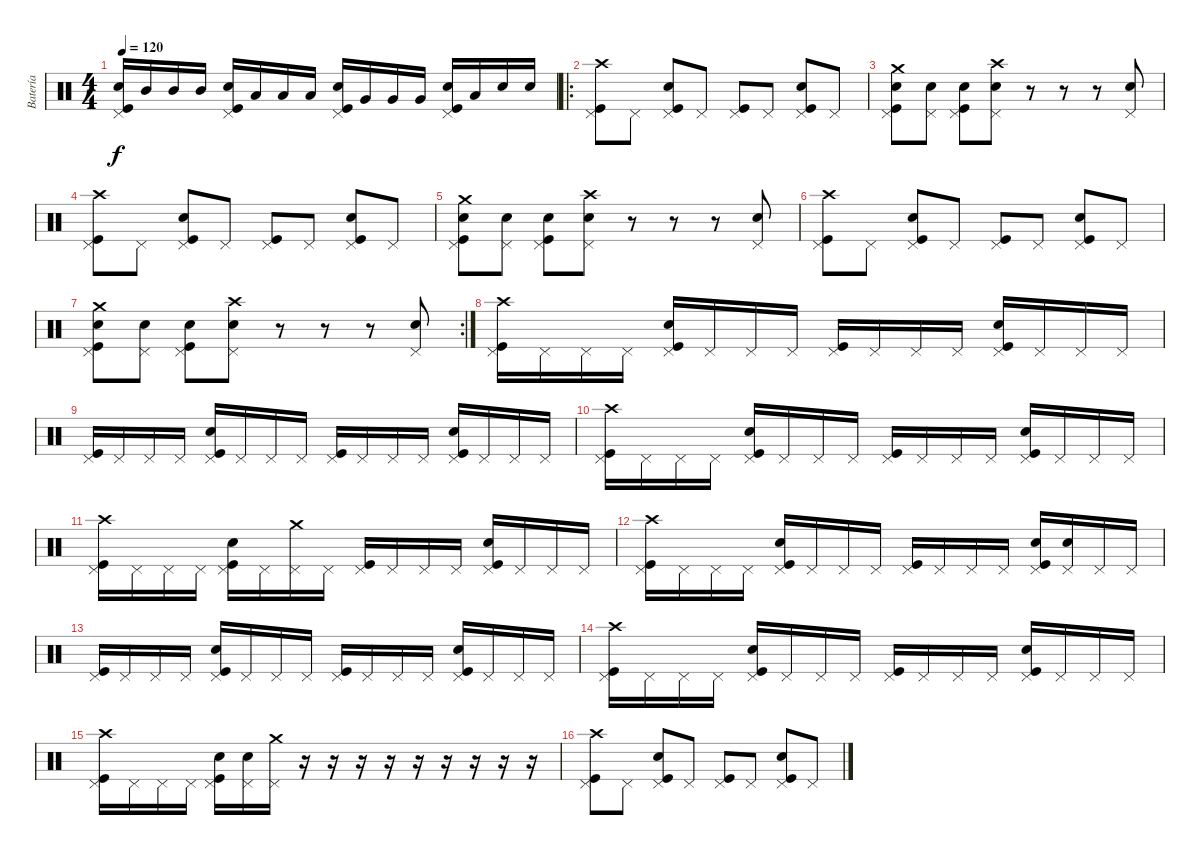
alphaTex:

\track ("Batería" "Batería") {instrument percussion}
\staff {score}
\articulation defaults
\ts (4 4)
\tempo 120
\clef neutral
\ks c
("Pedal Hi-Hat (hit)" "Snare (hit) 2" "Kick (hit)").16{dy f} "Mid Tom (hit)".16 "Mid Tom (hit)".16 "Mid Tom (hit)".16 ("Pedal Hi-Hat (hit)" "Snare (hit) 2" "Kick (hit)").16 "Low Tom (hit)".16 "Low Tom (hit)".16 "Low Tom (hit)".16 ("Pedal Hi-Hat (hit)" "Snare (hit) 2" "Kick (hit)").16 "Very Low Tom (hit)".16 "Very Low Tom (hit)".16 "Very Low Tom (hit)".16 ("Pedal Hi-Hat (hit)" "Snare (hit) 2" "Kick (hit)").16 "Low Floor Tom (hit)".16 "Snare (hit) 2".16 "Snare (hit) 2".16 |
\ro
("Pedal Hi-Hat (hit)" "Crash high (hit)" "Kick (hit)").8 "Pedal Hi-Hat (hit)".8 ("Pedal Hi-Hat (hit)" "Snare (hit) 2" "Kick (hit)").8 "Pedal Hi-Hat (hit)".8 ("Pedal Hi-Hat (hit)" "Kick (hit)").8 "Pedal Hi-Hat (hit)".8 ("Pedal Hi-Hat (hit)" "Snare (hit) 2" "Kick (hit)").8 "Pedal Hi-Hat (hit)".8 |
("Pedal Hi-Hat (hit)" "Crash medium (hit)" "Snare (hit) 2" "Kick (hit)").8 ("Pedal Hi-Hat (hit)" "Snare (hit) 2").8 ("Pedal Hi-Hat (hit)" "Snare (hit) 2" "Kick (hit)").8 ("Pedal Hi-Hat (hit)" "Crash high (hit)" "Snare (hit) 2").8 r.8 r.8 r.8 ("Pedal Hi-Hat (hit)" "Snare (hit) 2").8 |
("Pedal Hi-Hat (hit)" "Crash high (hit)" "Kick (hit)").8 "Pedal Hi-Hat (hit)".8 ("Pedal Hi-Hat (hit)" "Snare (hit) 2" "Kick (hit)").8 "Pedal Hi-Hat (hit)".8 ("Pedal Hi-Hat (hit)" "Kick (hit)").8 "Pedal Hi-Hat (hit)".8 ("Pedal Hi-Hat (hit)" "Snare (hit) 2" "Kick (hit)").8 "Pedal Hi-Hat (hit)".8 |
("Pedal Hi-Hat (hit)" "Crash medium (hit)" "Snare (hit) 2" "Kick (hit)").8 ("Pedal Hi-Hat (hit)" "Snare (hit) 2").8 ("Pedal Hi-Hat (hit)" "Snare (hit) 2" "Kick (hit)").8 ("Pedal Hi-Hat (hit)" "Crash high (hit)" "Snare (hit) 2").8 r.8 r.8 r.8 ("Pedal Hi-Hat (hit)" "Snare (hit) 2").8 |
("Pedal Hi-Hat (hit)" "Crash high (hit)" "Kick (hit)").8 "Pedal Hi-Hat (hit)".8 ("Pedal Hi-Hat (hit)" "Snare (hit) 2" "Kick (hit)").8 "Pedal Hi-Hat (hit)".8 ("Pedal Hi-Hat (hit)" "Kick (hit)").8 "Pedal Hi-Hat (hit)".8 ("Pedal Hi-Hat (hit)" "Snare (hit) 2" "Kick (hit)").8 "Pedal Hi-Hat (hit)".8 |
\rc 2
("Pedal Hi-Hat (hit)" "Crash medium (hit)" "Snare (hit) 2" "Kick (hit)").8 ("Pedal Hi-Hat (hit)" "Snare (hit) 2").8 ("Pedal Hi-Hat (hit)" "Snare (hit) 2" "Kick (hit)").8 ("Pedal Hi-Hat (hit)" "Crash high (hit)" "Snare (hit) 2").8 r.8 r.8 r.8 ("Pedal Hi-Hat (hit)" "Snare (hit) 2").8 |
("Pedal Hi-Hat (hit)" "Crash high (hit)" "Kick (hit)").16 "Pedal Hi-Hat (hit)".16 "Pedal Hi-Hat (hit)".16 "Pedal Hi-Hat (hit)".16 ("Pedal Hi-Hat (hit)" "Snare (hit) 2" "Kick (hit)").16 "Pedal Hi-Hat (hit)".16 "Pedal Hi-Hat (hit)".16 "Pedal Hi-Hat (hit)".16 ("Pedal Hi-Hat (hit)" "Kick (hit)").16 "Pedal Hi-Hat (hit)".16 "Pedal Hi-Hat (hit)".16 "Pedal Hi-Hat (hit)".16 ("Pedal Hi-Hat (hit)" "Snare (hit) 2" "Kick (hit)").16 "Pedal Hi-Hat (hit)".16 "Pedal Hi-Hat (hit)".16 "Pedal Hi-Hat (hit)".16 |
("Pedal Hi-Hat (hit)" "Kick (hit)").16 "Pedal Hi-Hat (hit)".16 "Pedal Hi-Hat (hit)".16 "Pedal Hi-Hat (hit)".16 ("Pedal Hi-Hat (hit)" "Snare (hit) 2" "Kick (hit)").16 "Pedal Hi-Hat (hit)".16 "Pedal Hi-Hat (hit)".16 "Pedal Hi-Hat (hit)".16 ("Pedal Hi-Hat (hit)" "Kick (hit)").16 "Pedal Hi-Hat (hit)".16 "Pedal Hi-Hat (hit)".16 "Pedal Hi-Hat (hit)".16 ("Pedal Hi-Hat (hit)" "Snare (hit) 2" "Kick (hit)").16 "Pedal Hi-Hat (hit)".16 "Pedal Hi-Hat (hit)".16 "Pedal Hi-Hat (hit)".16 |
("Pedal Hi-Hat (hit)" "Crash high (hit)" "Kick (hit)").16 "Pedal Hi-Hat (hit)".16 "Pedal Hi-Hat (hit)".16 "Pedal Hi-Hat (hit)".16 ("Pedal Hi-Hat (hit)" "Snare (hit) 2" "Kick (hit)").16 "Pedal Hi-Hat (hit)".16 "Pedal Hi-Hat (hit)".16 "Pedal Hi-Hat (hit)".16 ("Pedal Hi-Hat (hit)" "Kick (hit)").16 "Pedal Hi-Hat (hit)".16 "Pedal Hi-Hat (hit)".16 "Pedal Hi-Hat (hit)".16 ("Pedal Hi-Hat (hit)" "Snare (hit) 2" "Kick (hit)").16 "Pedal Hi-Hat (hit)".16 "Pedal Hi-Hat (hit)".16 "Pedal Hi-Hat (hit)".16 |
("Pedal Hi-Hat (hit)" "Crash high (hit)" "Kick (hit)").16 "Pedal Hi-Hat (hit)".16 "Pedal Hi-Hat (hit)".16 "Pedal Hi-Hat (hit)".16 ("Pedal Hi-Hat (hit)" "Snare (hit) 2" "Kick (hit)").16 "Pedal Hi-Hat (hit)".16 ("Pedal Hi-Hat (hit)" "Crash medium (hit)").16 "Pedal Hi-Hat (hit)".16 ("Pedal Hi-Hat (hit)" "Kick (hit)").16 "Pedal Hi-Hat (hit)".16 "Pedal Hi-Hat (hit)".16 "Pedal Hi-Hat (hit)".16 ("Pedal Hi-Hat (hit)" "Snare (hit) 2" "Kick (hit)").16 "Pedal Hi-Hat (hit)".16 "Pedal Hi-Hat (hit)".16 "Pedal Hi-Hat (hit)".16 |
("Pedal Hi-Hat (hit)" "Crash high (hit)" "Kick (hit)").16 "Pedal Hi-Hat (hit)".16 "Pedal Hi-Hat (hit)".16 "Pedal Hi-Hat (hit)".16 ("Pedal Hi-Hat (hit)" "Snare (hit) 2" "Kick (hit)").16 "Pedal Hi-Hat (hit)".16 "Pedal Hi-Hat (hit)".16 "Pedal Hi-Hat (hit)".16 ("Pedal Hi-Hat (hit)" "Kick (hit)").16 "Pedal Hi-Hat (hit)".16 "Pedal Hi-Hat (hit)".16 "Pedal Hi-Hat (hit)".16 ("Pedal Hi-Hat (hit)" "Snare (hit) 2" "Kick (hit)").16 ("Pedal Hi-Hat (hit)" "Snare (hit) 2").16 "Pedal Hi-Hat (hit)".16 "Pedal Hi-Hat (hit)".16 |
("Pedal Hi-Hat (hit)" "Kick (hit)").16 "Pedal Hi-Hat (hit)".16 "Pedal Hi-Hat (hit)".16 "Pedal Hi-Hat (hit)".16 ("Pedal Hi-Hat (hit)" "Snare (hit) 2" "Kick (hit)").16 "Pedal Hi-Hat (hit)".16 "Pedal Hi-Hat (hit)".16 "Pedal Hi-Hat (hit)".16 ("Pedal Hi-Hat (hit)" "Kick (hit)").16 "Pedal Hi-Hat (hit)".16 "Pedal Hi-Hat (hit)".16 "Pedal Hi-Hat (hit)".16 ("Pedal Hi-Hat (hit)" "Snare (hit) 2" "Kick (hit)").16 "Pedal Hi-Hat (hit)".16 "Pedal Hi-Hat (hit)".16 "Pedal Hi-Hat (hit)".16 |
("Pedal Hi-Hat (hit)" "Crash high (hit)" "Kick (hit)").16 "Pedal Hi-Hat (hit)".16 "Pedal Hi-Hat (hit)".16 "Pedal Hi-Hat (hit)".16 ("Pedal Hi-Hat (hit)" "Snare (hit) 2" "Kick (hit)").16 "Pedal Hi-Hat (hit)".16 "Pedal Hi-Hat (hit)".16 "Pedal Hi-Hat (hit)".16 ("Pedal Hi-Hat (hit)" "Kick (hit)").16 "Pedal Hi-Hat (hit)".16 "Pedal Hi-Hat (hit)".16 "Pedal Hi-Hat (hit)".16 ("Pedal Hi-Hat (hit)" "Snare (hit) 2" "Kick (hit)").16 "Pedal Hi-Hat (hit)".16 "Pedal Hi-Hat (hit)".16 "Pedal Hi-Hat (hit)".16 |
("Pedal Hi-Hat (hit)" "Crash high (hit)" "Kick (hit)").16 "Pedal Hi-Hat (hit)".16 "Pedal Hi-Hat (hit)".16 "Pedal Hi-Hat (hit)".16 ("Pedal Hi-Hat (hit)" "Snare (hit) 2" "Kick (hit)").16 ("Pedal Hi-Hat (hit)" "Snare (hit) 2").16 ("Pedal Hi-Hat (hit)" "Crash medium (hit)").16 r.16 r.16 r.16 r.16 r.16 r.16 r.16 r.16 r.16 |
("Pedal Hi-Hat (hit)" "Crash high (hit)" "Kick (hit)").8 "Pedal Hi-Hat (hit)".8 ("Pedal Hi-Hat (hit)" "Snare (hit) 2" "Kick (hit)").8 "Pedal Hi-Hat (hit)".8 ("Pedal Hi-Hat (hit)" "Kick (hit)").8 "Pedal Hi-Hat (hit)".8 ("Pedal Hi-Hat (hit)" "Snare (hit) 2" "Kick (hit)").8 "Pedal Hi-Hat (hit)".8
